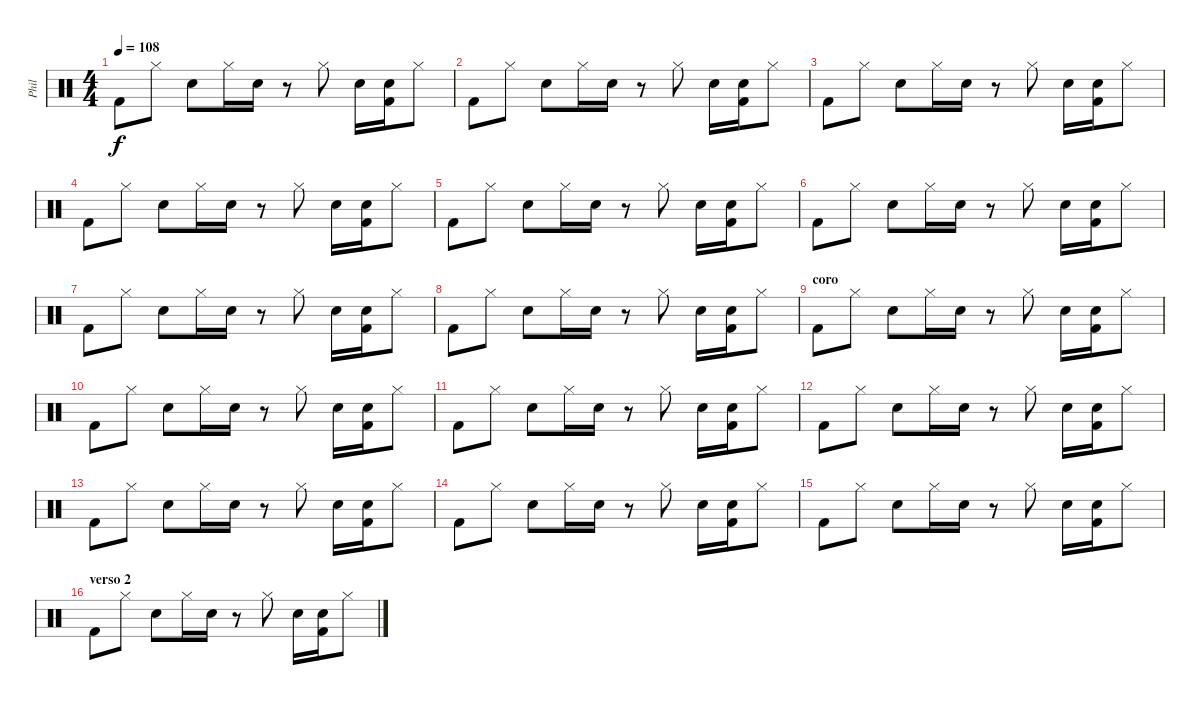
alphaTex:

\track ("Phil" "Phil") {instrument percussion}
\staff {score}
\articulation defaults
\ts (4 4)
\tempo 108
\clef neutral
\ks c "Kick (hit) 2".8{dy f} "Hi-Hat (closed)".8 "Electric Snare (hit)".8 "Hi-Hat (closed)".16 "Electric Snare (hit)".16
r.8 "Hi-Hat (closed)".8 "Electric Snare (hit)".16 ("Electric Snare (hit)" "Kick (hit) 2").16 "Hi-Hat (closed)".8 |
"Kick (hit) 2".8 "Hi-Hat (closed)".8 "Electric Snare (hit)".8 "Hi-Hat (closed)".16 "Electric Snare (hit)".16 r.8 "Hi-Hat (closed)".8 "Electric Snare (hit)".16 ("Electric Snare (hit)" "Kick (hit) 2").16 "Hi-Hat (closed)".8 |
"Kick (hit) 2".8 "Hi-Hat (closed)".8 "Electric Snare (hit)".8 "Hi-Hat (closed)".16 "Electric Snare (hit)".16 r.8 "Hi-Hat (closed)".8 "Electric Snare (hit)".16 ("Electric Snare (hit)" "Kick (hit) 2").16 "Hi-Hat (closed)".8 |
"Kick (hit) 2".8 "Hi-Hat (closed)".8 "Electric Snare (hit)".8 "Hi-Hat (closed)".16 "Electric Snare (hit)".16 r.8 "Hi-Hat (closed)".8 "Electric Snare (hit)".16 ("Electric Snare (hit)" "Kick (hit) 2").16 "Hi-Hat (closed)".8 |
"Kick (hit) 2".8 "Hi-Hat (closed)".8 "Electric Snare (hit)".8 "Hi-Hat (closed)".16 "Electric Snare (hit)".16 r.8 "Hi-Hat (closed)".8 "Electric Snare (hit)".16 ("Electric Snare (hit)" "Kick (hit) 2").16 "Hi-Hat (closed)".8 |
"Kick (hit) 2".8 "Hi-Hat (closed)".8 "Electric Snare (hit)".8 "Hi-Hat (closed)".16 "Electric Snare (hit)".16 r.8 "Hi-Hat (closed)".8 "Electric Snare (hit)".16 ("Electric Snare (hit)" "Kick (hit) 2").16 "Hi-Hat (closed)".8 |
"Kick (hit) 2".8 "Hi-Hat (closed)".8 "Electric Snare (hit)".8 "Hi-Hat (closed)".16 "Electric Snare (hit)".16 r.8 "Hi-Hat (closed)".8 "Electric Snare (hit)".16 ("Electric Snare (hit)" "Kick (hit) 2").16 "Hi-Hat (closed)".8 |
"Kick (hit) 2".8 "Hi-Hat (closed)".8 "Electric Snare (hit)".8 "Hi-Hat (closed)".16 "Electric Snare (hit)".16 r.8 "Hi-Hat (closed)".8 "Electric Snare (hit)".16 ("Electric Snare (hit)" "Kick (hit) 2").16 "Hi-Hat (closed)".8 |
\section ("" "coro")
"Kick (hit) 2".8 "Hi-Hat (closed)".8 "Electric Snare (hit)".8 "Hi-Hat (closed)".16 "Electric Snare (hit)".16 r.8 "Hi-Hat (closed)".8 "Electric Snare (hit)".16 ("Electric Snare (hit)" "Kick (hit) 2").16 "Hi-Hat (closed)".8 |
"Kick (hit) 2".8 "Hi-Hat (closed)".8 "Electric Snare (hit)".8 "Hi-Hat (closed)".16 "Electric Snare (hit)".16 r.8 "Hi-Hat (closed)".8 "Electric Snare (hit)".16 ("Electric Snare (hit)" "Kick (hit) 2").16 "Hi-Hat (closed)".8 |
"Kick (hit) 2".8 "Hi-Hat (closed)".8 "Electric Snare (hit)".8 "Hi-Hat (closed)".16 "Electric Snare (hit)".16 r.8 "Hi-Hat (closed)".8 "Electric Snare (hit)".16 ("Electric Snare (hit)" "Kick (hit) 2").16 "Hi-Hat (closed)".8 |
"Kick (hit) 2".8 "Hi-Hat (closed)".8 "Electric Snare (hit)".8 "Hi-Hat (closed)".16 "Electric Snare (hit)".16 r.8 "Hi-Hat (closed)".8 "Electric Snare (hit)".16 ("Electric Snare (hit)" "Kick (hit) 2").16 "Hi-Hat (closed)".8 |
"Kick (hit) 2".8 "Hi-Hat (closed)".8 "Electric Snare (hit)".8 "Hi-Hat (closed)".16 "Electric Snare (hit)".16 r.8 "Hi-Hat (closed)".8 "Electric Snare (hit)".16 ("Electric Snare (hit)" "Kick (hit) 2").16 "Hi-Hat (closed)".8 |
"Kick (hit) 2".8 "Hi-Hat (closed)".8 "Electric Snare (hit)".8 "Hi-Hat (closed)".16 "Electric Snare (hit)".16 r.8 "Hi-Hat (closed)".8 "Electric Snare (hit)".16 ("Electric Snare (hit)" "Kick (hit) 2").16 "Hi-Hat (closed)".8 |
"Kick (hit) 2".8 "Hi-Hat (closed)".8 "Electric Snare (hit)".8 "Hi-Hat (closed)".16 "Electric Snare (hit)".16 r.8 "Hi-Hat (closed)".8 "Electric Snare (hit)".16 ("Electric Snare (hit)" "Kick (hit) 2").16 "Hi-Hat (closed)".8 |
\section ("" "verso 2")
"Kick (hit) 2".8 "Hi-Hat (closed)".8 "Electric Snare (hit)".8 "Hi-Hat (closed)".16 "Electric Snare (hit)".16 r.8 "Hi-Hat (closed)".8 "Electric Snare (hit)".16 ("Electric Snare (hit)" "Kick (hit) 2").16 "Hi-Hat (closed)".8
